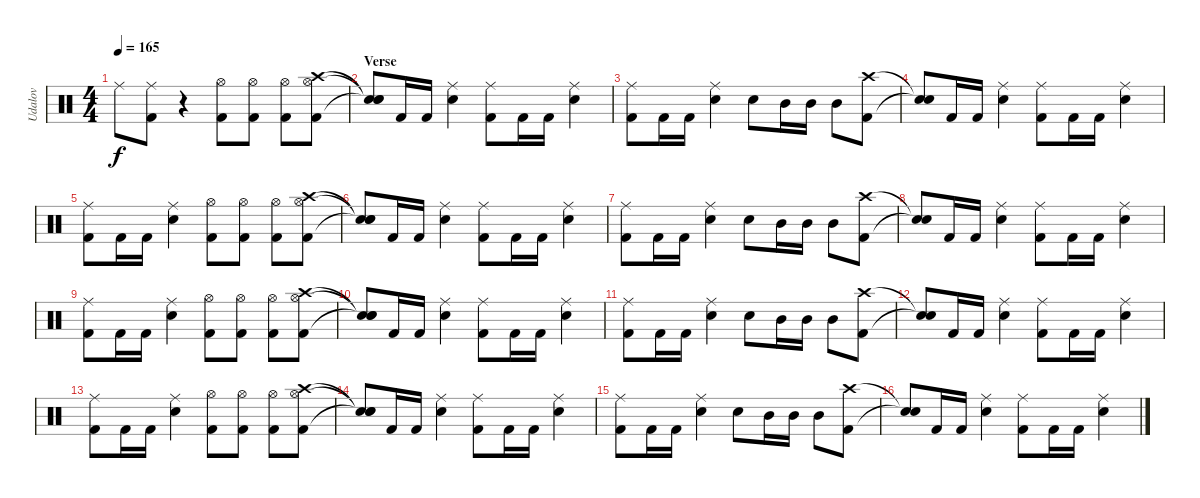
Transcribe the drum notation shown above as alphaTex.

\track ("Udalov" "Udalov") {instrument percussion}
\staff {score}
\articulation defaults
\ts (4 4)
\tempo 165
\clef neutral
\ks c "Ride (middle)".8{dy f}
("Kick (hit) 2" "Ride (middle)").8 r.4 ("Kick (hit) 2" "Hi-Hat (open)").8 ("Kick (hit) 2" "Hi-Hat (open)").8 ("Kick (hit) 2" "Hi-Hat (open)").8 ("Kick (hit) 2" "Hi-Hat (open)" "Crash high (hit)").8 |
\section ("" "Verse")
("Snare (hit)"{t} "Snare (hit)"{t} "Snare (hit)"{t}).8 "Kick (hit) 2".16 "Kick (hit) 2".16 ("Snare (hit) 2" "Ride (middle)").4 ("Kick (hit) 2" "Ride (middle)").8 "Kick (hit) 2".16 "Kick (hit) 2".16 ("Snare (hit) 2" "Ride (middle)").4 |
("Kick (hit) 2" "Ride (middle)").8 "Kick (hit) 2".16 "Kick (hit) 2".16 ("Snare (hit) 2" "Ride (middle)").4 "Snare (hit) 2".8 "Mid Tom (hit)".16 "Mid Tom (hit)".16 "Mid Tom (hit)".8 ("Kick (hit) 2" "Crash high (hit)").8 |
("Snare (hit)"{t} "Snare (hit)"{t}).8 "Kick (hit) 2".16 "Kick (hit) 2".16 ("Snare (hit) 2" "Ride (middle)").4 ("Kick (hit) 2" "Ride (middle)").8 "Kick (hit) 2".16 "Kick (hit) 2".16 ("Snare (hit) 2" "Ride (middle)").4 |
("Kick (hit) 2" "Ride (middle)").8 "Kick (hit) 2".16 "Kick (hit) 2".16 ("Snare (hit) 2" "Ride (middle)").4 ("Kick (hit) 2" "Hi-Hat (open)").8 ("Kick (hit) 2" "Hi-Hat (open)").8 ("Kick (hit) 2" "Hi-Hat (open)").8 ("Kick (hit) 2" "Hi-Hat (open)" "Crash high (hit)").8 |
("Snare (hit)"{t} "Snare (hit)"{t} "Snare (hit)"{t}).8 "Kick (hit) 2".16 "Kick (hit) 2".16 ("Snare (hit) 2" "Ride (middle)").4 ("Kick (hit) 2" "Ride (middle)").8 "Kick (hit) 2".16 "Kick (hit) 2".16 ("Snare (hit) 2" "Ride (middle)").4 |
("Kick (hit) 2" "Ride (middle)").8 "Kick (hit) 2".16 "Kick (hit) 2".16 ("Snare (hit) 2" "Ride (middle)").4 "Snare (hit) 2".8 "Mid Tom (hit)".16 "Mid Tom (hit)".16 "Mid Tom (hit)".8 ("Kick (hit) 2" "Crash high (hit)").8 |
("Snare (hit)"{t} "Snare (hit)"{t}).8 "Kick (hit) 2".16 "Kick (hit) 2".16 ("Snare (hit) 2" "Ride (middle)").4 ("Kick (hit) 2" "Ride (middle)").8 "Kick (hit) 2".16 "Kick (hit) 2".16 ("Snare (hit) 2" "Ride (middle)").4 |
("Kick (hit) 2" "Ride (middle)").8 "Kick (hit) 2".16 "Kick (hit) 2".16 ("Snare (hit) 2" "Ride (middle)").4 ("Kick (hit) 2" "Hi-Hat (open)").8 ("Kick (hit) 2" "Hi-Hat (open)").8 ("Kick (hit) 2" "Hi-Hat (open)").8 ("Kick (hit) 2" "Hi-Hat (open)" "Crash high (hit)").8 |
("Snare (hit)"{t} "Snare (hit)"{t} "Snare (hit)"{t}).8 "Kick (hit) 2".16 "Kick (hit) 2".16 ("Snare (hit) 2" "Ride (middle)").4 ("Kick (hit) 2" "Ride (middle)").8 "Kick (hit) 2".16 "Kick (hit) 2".16 ("Snare (hit) 2" "Ride (middle)").4 |
("Kick (hit) 2" "Ride (middle)").8 "Kick (hit) 2".16 "Kick (hit) 2".16 ("Snare (hit) 2" "Ride (middle)").4 "Snare (hit) 2".8 "Mid Tom (hit)".16 "Mid Tom (hit)".16 "Mid Tom (hit)".8 ("Kick (hit) 2" "Crash high (hit)").8 |
("Snare (hit)"{t} "Snare (hit)"{t}).8 "Kick (hit) 2".16 "Kick (hit) 2".16 ("Snare (hit) 2" "Ride (middle)").4 ("Kick (hit) 2" "Ride (middle)").8 "Kick (hit) 2".16 "Kick (hit) 2".16 ("Snare (hit) 2" "Ride (middle)").4 |
("Kick (hit) 2" "Ride (middle)").8 "Kick (hit) 2".16 "Kick (hit) 2".16 ("Snare (hit) 2" "Ride (middle)").4 ("Kick (hit) 2" "Hi-Hat (open)").8 ("Kick (hit) 2" "Hi-Hat (open)").8 ("Kick (hit) 2" "Hi-Hat (open)").8 ("Kick (hit) 2" "Hi-Hat (open)" "Crash high (hit)").8 |
("Snare (hit)"{t} "Snare (hit)"{t} "Snare (hit)"{t}).8 "Kick (hit) 2".16 "Kick (hit) 2".16 ("Snare (hit) 2" "Ride (middle)").4 ("Kick (hit) 2" "Ride (middle)").8 "Kick (hit) 2".16 "Kick (hit) 2".16 ("Snare (hit) 2" "Ride (middle)").4 |
("Kick (hit) 2" "Ride (middle)").8 "Kick (hit) 2".16 "Kick (hit) 2".16 ("Snare (hit) 2" "Ride (middle)").4 "Snare (hit) 2".8 "Mid Tom (hit)".16 "Mid Tom (hit)".16 "Mid Tom (hit)".8 ("Kick (hit) 2" "Crash high (hit)").8 |
("Snare (hit)"{t} "Snare (hit)"{t}).8 "Kick (hit) 2".16 "Kick (hit) 2".16 ("Snare (hit) 2" "Ride (middle)").4 ("Kick (hit) 2" "Ride (middle)").8 "Kick (hit) 2".16 "Kick (hit) 2".16 ("Snare (hit) 2" "Ride (middle)").4
